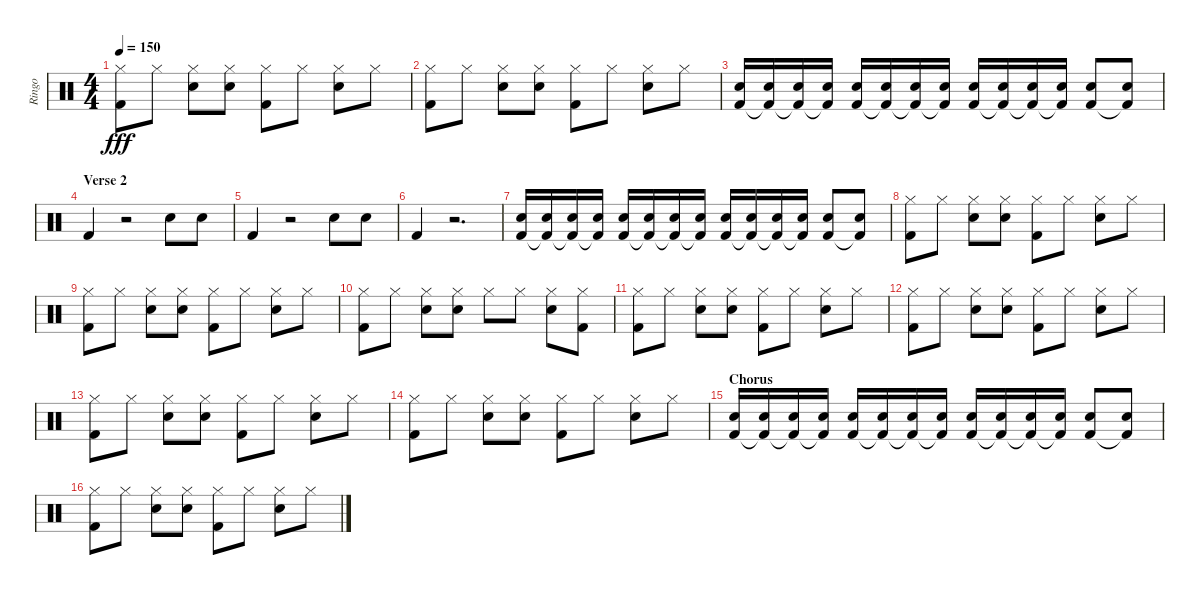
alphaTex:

\track ("Ringo" "Ringo") {instrument percussion}
\staff {score}
\articulation defaults
\ts (4 4)
\tempo 150
\clef neutral
\ks c
("Hi-Hat (closed)" "Kick (hit) 2").8{dy fff} "Hi-Hat (closed)".8 ("Hi-Hat (closed)" "Snare (hit) 2").8 ("Hi-Hat (closed)" "Snare (hit) 2").8 ("Hi-Hat (closed)" "Kick (hit) 2").8 "Hi-Hat (closed)".8 ("Hi-Hat (closed)" "Snare (hit) 2").8 "Hi-Hat (closed)".8 |
("Hi-Hat (closed)" "Kick (hit) 2").8 "Hi-Hat (closed)".8 ("Hi-Hat (closed)" "Snare (hit) 2").8 ("Hi-Hat (closed)" "Snare (hit) 2").8 ("Hi-Hat (closed)" "Kick (hit) 2").8 "Hi-Hat (closed)".8 ("Hi-Hat (closed)" "Snare (hit) 2").8 "Hi-Hat (closed)".8 |
("Snare (hit) 2" "Kick (hit) 2").16 ("Snare (hit) 2" "Kick (hit) 2"{t}).16 ("Snare (hit) 2" "Kick (hit) 2"{t}).16 ("Snare (hit) 2" "Kick (hit) 2"{t}).16 ("Snare (hit) 2" "Kick (hit) 2").16 ("Snare (hit) 2" "Kick (hit) 2"{t}).16 ("Snare (hit) 2" "Kick (hit) 2"{t}).16 ("Snare (hit) 2" "Kick (hit) 2"{t}).16 ("Snare (hit) 2" "Kick (hit) 2").16 ("Snare (hit) 2" "Kick (hit) 2"{t}).16 ("Snare (hit) 2" "Kick (hit) 2"{t}).16 ("Snare (hit) 2" "Kick (hit) 2"{t}).16 ("Snare (hit) 2" "Kick (hit) 2").8 ("Snare (hit) 2" "Kick (hit) 2"{t}).8 |
\section ("" "Verse 2")
"Kick (hit) 2".4 r.2 "Snare (hit) 2".8 "Snare (hit) 2".8 |
"Kick (hit) 2".4 r.2 "Snare (hit) 2".8 "Snare (hit) 2".8 |
"Kick (hit) 2".4 r.2{d} |
("Snare (hit) 2" "Kick (hit) 2").16 ("Snare (hit) 2" "Kick (hit) 2"{t}).16 ("Snare (hit) 2" "Kick (hit) 2"{t}).16 ("Snare (hit) 2" "Kick (hit) 2"{t}).16 ("Snare (hit) 2" "Kick (hit) 2").16 ("Snare (hit) 2" "Kick (hit) 2"{t}).16 ("Snare (hit) 2" "Kick (hit) 2"{t}).16 ("Snare (hit) 2" "Kick (hit) 2"{t}).16 ("Snare (hit) 2" "Kick (hit) 2").16 ("Snare (hit) 2" "Kick (hit) 2"{t}).16 ("Snare (hit) 2" "Kick (hit) 2"{t}).16 ("Snare (hit) 2" "Kick (hit) 2"{t}).16 ("Snare (hit) 2" "Kick (hit) 2").8 ("Snare (hit) 2" "Kick (hit) 2"{t}).8 |
("Hi-Hat (closed)" "Kick (hit) 2").8 "Hi-Hat (closed)".8 ("Hi-Hat (closed)" "Snare (hit) 2").8 ("Hi-Hat (closed)" "Snare (hit) 2").8 ("Hi-Hat (closed)" "Kick (hit) 2").8 "Hi-Hat (closed)".8 ("Hi-Hat (closed)" "Snare (hit) 2").8 "Hi-Hat (closed)".8 |
("Hi-Hat (closed)" "Kick (hit) 2").8 "Hi-Hat (closed)".8 ("Hi-Hat (closed)" "Snare (hit) 2").8 ("Hi-Hat (closed)" "Snare (hit) 2").8 ("Hi-Hat (closed)" "Kick (hit) 2").8 "Hi-Hat (closed)".8 ("Hi-Hat (closed)" "Snare (hit) 2").8 "Hi-Hat (closed)".8 |
("Hi-Hat (closed)" "Kick (hit) 2").8 "Hi-Hat (closed)".8 ("Hi-Hat (closed)" "Snare (hit) 2").8 ("Hi-Hat (closed)" "Snare (hit) 2").8 "Hi-Hat (closed)".8 "Hi-Hat (closed)".8 ("Hi-Hat (closed)" "Snare (hit) 2").8 ("Hi-Hat (closed)" "Kick (hit) 2").8 |
("Hi-Hat (closed)" "Kick (hit) 2").8 "Hi-Hat (closed)".8 ("Hi-Hat (closed)" "Snare (hit) 2").8 ("Hi-Hat (closed)" "Snare (hit) 2").8 ("Hi-Hat (closed)" "Kick (hit) 2").8 "Hi-Hat (closed)".8 ("Hi-Hat (closed)" "Snare (hit) 2").8 "Hi-Hat (closed)".8 |
("Hi-Hat (closed)" "Kick (hit) 2").8 "Hi-Hat (closed)".8 ("Hi-Hat (closed)" "Snare (hit) 2").8 ("Hi-Hat (closed)" "Snare (hit) 2").8 ("Hi-Hat (closed)" "Kick (hit) 2").8 "Hi-Hat (closed)".8 ("Hi-Hat (closed)" "Snare (hit) 2").8 "Hi-Hat (closed)".8 |
("Hi-Hat (closed)" "Kick (hit) 2").8 "Hi-Hat (closed)".8 ("Hi-Hat (closed)" "Snare (hit) 2").8 ("Hi-Hat (closed)" "Snare (hit) 2").8 ("Hi-Hat (closed)" "Kick (hit) 2").8 "Hi-Hat (closed)".8 ("Hi-Hat (closed)" "Snare (hit) 2").8 "Hi-Hat (closed)".8 |
("Hi-Hat (closed)" "Kick (hit) 2").8 "Hi-Hat (closed)".8 ("Hi-Hat (closed)" "Snare (hit) 2").8 ("Hi-Hat (closed)" "Snare (hit) 2").8 ("Hi-Hat (closed)" "Kick (hit) 2").8 "Hi-Hat (closed)".8 ("Hi-Hat (closed)" "Snare (hit) 2").8 "Hi-Hat (closed)".8 |
\section ("" "Chorus")
("Snare (hit) 2" "Kick (hit) 2").16 ("Snare (hit) 2" "Kick (hit) 2"{t}).16 ("Snare (hit) 2" "Kick (hit) 2"{t}).16 ("Snare (hit) 2" "Kick (hit) 2"{t}).16 ("Snare (hit) 2" "Kick (hit) 2").16 ("Snare (hit) 2" "Kick (hit) 2"{t}).16 ("Snare (hit) 2" "Kick (hit) 2"{t}).16 ("Snare (hit) 2" "Kick (hit) 2"{t}).16 ("Snare (hit) 2" "Kick (hit) 2").16 ("Snare (hit) 2" "Kick (hit) 2"{t}).16 ("Snare (hit) 2" "Kick (hit) 2"{t}).16 ("Snare (hit) 2" "Kick (hit) 2"{t}).16 ("Snare (hit) 2" "Kick (hit) 2").8 ("Snare (hit) 2" "Kick (hit) 2"{t}).8 |
("Hi-Hat (closed)" "Kick (hit) 2").8 "Hi-Hat (closed)".8 ("Hi-Hat (closed)" "Snare (hit) 2").8 ("Hi-Hat (closed)" "Snare (hit) 2").8 ("Hi-Hat (closed)" "Kick (hit) 2").8 "Hi-Hat (closed)".8 ("Hi-Hat (closed)" "Snare (hit) 2").8 "Hi-Hat (closed)".8
